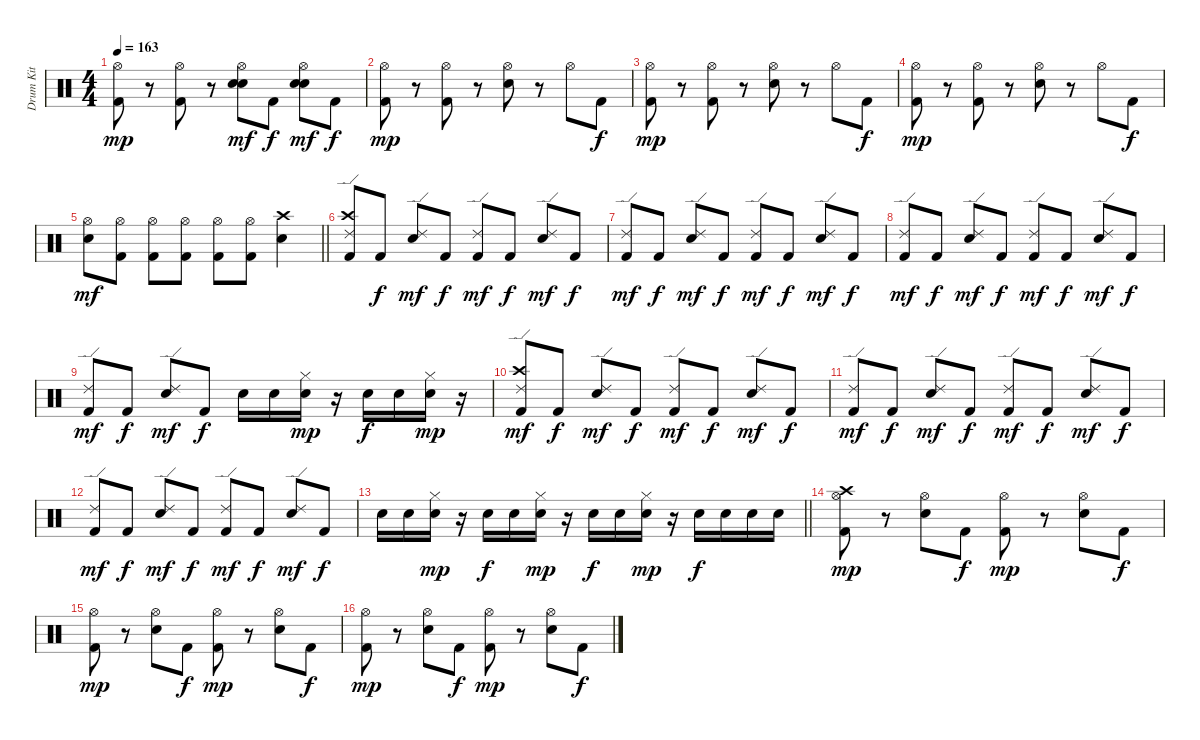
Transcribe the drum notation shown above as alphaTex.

\track ("Drum Kit" "Drum Kit") {instrument percussion}
\staff {score}
\articulation defaults
\ts (4 4)
\tempo 163
\clef neutral
\ks c
("Hi-Hat (open)" "Kick (hit) 2").8{dy mp} r.8 ("Hi-Hat (open)" "Kick (hit) 2").8 r.8 ("Hi-Hat (open)" "Snare (hit) 2" "Electric Snare (hit)").8{dy mf} "Kick (hit) 2".8{dy f} ("Hi-Hat (open)" "Snare (hit) 2" "Electric Snare (hit)").8{dy mf} "Kick (hit) 2".8{dy f} |
("Hi-Hat (open)" "Kick (hit) 2").8{dy mp} r.8 ("Hi-Hat (open)" "Kick (hit) 2").8 r.8 ("Hi-Hat (open)" "Electric Snare (hit)").8 r.8 "Hi-Hat (open)".8 "Kick (hit) 2".8{dy f} |
("Hi-Hat (open)" "Kick (hit) 2").8{dy mp} r.8 ("Hi-Hat (open)" "Kick (hit) 2").8 r.8 ("Hi-Hat (open)" "Electric Snare (hit)").8 r.8 "Hi-Hat (open)".8 "Kick (hit) 2".8{dy f} |
("Hi-Hat (open)" "Kick (hit) 2").8{dy mp} r.8 ("Hi-Hat (open)" "Kick (hit) 2").8 r.8 ("Hi-Hat (open)" "Electric Snare (hit)").8 r.8 "Hi-Hat (open)".8 "Kick (hit) 2".8{dy f} |
\barLineRight lightlight
("Hi-Hat (open)" "Electric Snare (hit)").8{dy mf} ("Hi-Hat (open)" "Kick (hit) 2").8 ("Hi-Hat (open)" "Kick (hit) 2").8 ("Hi-Hat (open)" "Kick (hit) 2").8 ("Hi-Hat (open)" "Kick (hit) 2").8 ("Hi-Hat (open)" "Kick (hit) 2").8 ("Crash high (hit)" "Electric Snare (hit)").4 |
("Crash high (hit)" "Ride (edge) 2" "Kick (hit) 2").8 "Kick (hit) 2".8{dy f} ("Ride (edge) 2" "Electric Snare (hit)").8{dy mf} "Kick (hit) 2".8{dy f} ("Ride (edge) 2" "Kick (hit) 2").8{dy mf} "Kick (hit) 2".8{dy f} ("Ride (edge) 2" "Electric Snare (hit)").8{dy mf} "Kick (hit) 2".8{dy f} |
("Ride (edge) 2" "Kick (hit) 2").8{dy mf} "Kick (hit) 2".8{dy f} ("Ride (edge) 2" "Electric Snare (hit)").8{dy mf} "Kick (hit) 2".8{dy f} ("Ride (edge) 2" "Kick (hit) 2").8{dy mf} "Kick (hit) 2".8{dy f} ("Ride (edge) 2" "Electric Snare (hit)").8{dy mf} "Kick (hit) 2".8{dy f} |
("Ride (edge) 2" "Kick (hit) 2").8{dy mf} "Kick (hit) 2".8{dy f} ("Ride (edge) 2" "Electric Snare (hit)").8{dy mf} "Kick (hit) 2".8{dy f} ("Ride (edge) 2" "Kick (hit) 2").8{dy mf} "Kick (hit) 2".8{dy f} ("Ride (edge) 2" "Electric Snare (hit)").8{dy mf} "Kick (hit) 2".8{dy f} |
("Ride (edge) 2" "Kick (hit) 2").8{dy mf} "Kick (hit) 2".8{dy f} ("Ride (edge) 2" "Electric Snare (hit)").8{dy mf} "Kick (hit) 2".8{dy f} "Electric Snare (hit)".16 "Electric Snare (hit)".16 ("Hi-Hat (closed)" "Electric Snare (hit)").16{dy mp} r.16 "Electric Snare (hit)".16{dy f} "Electric Snare (hit)".16 ("Hi-Hat (closed)" "Electric Snare (hit)").16{dy mp} r.16 |
("Crash high (hit)" "Ride (edge) 2" "Kick (hit) 2").8{dy mf} "Kick (hit) 2".8{dy f} ("Ride (edge) 2" "Electric Snare (hit)").8{dy mf} "Kick (hit) 2".8{dy f} ("Ride (edge) 2" "Kick (hit) 2").8{dy mf} "Kick (hit) 2".8{dy f} ("Ride (edge) 2" "Electric Snare (hit)").8{dy mf} "Kick (hit) 2".8{dy f} |
("Ride (edge) 2" "Kick (hit) 2").8{dy mf} "Kick (hit) 2".8{dy f} ("Ride (edge) 2" "Electric Snare (hit)").8{dy mf} "Kick (hit) 2".8{dy f} ("Ride (edge) 2" "Kick (hit) 2").8{dy mf} "Kick (hit) 2".8{dy f} ("Ride (edge) 2" "Electric Snare (hit)").8{dy mf} "Kick (hit) 2".8{dy f} |
("Ride (edge) 2" "Kick (hit) 2").8{dy mf} "Kick (hit) 2".8{dy f} ("Ride (edge) 2" "Electric Snare (hit)").8{dy mf} "Kick (hit) 2".8{dy f} ("Ride (edge) 2" "Kick (hit) 2").8{dy mf} "Kick (hit) 2".8{dy f} ("Ride (edge) 2" "Electric Snare (hit)").8{dy mf} "Kick (hit) 2".8{dy f} |
\barLineRight lightlight "Electric Snare (hit)".16 "Electric Snare (hit)".16
("Hi-Hat (closed)" "Electric Snare (hit)").16{dy mp} r.16 "Electric Snare (hit)".16{dy f} "Electric Snare (hit)".16 ("Hi-Hat (closed)" "Electric Snare (hit)").16{dy mp} r.16 "Electric Snare (hit)".16{dy f} "Electric Snare (hit)".16 ("Hi-Hat (closed)" "Electric Snare (hit)").16{dy mp} r.16 "Electric Snare (hit)".16{dy f} "Electric Snare (hit)".16 "Electric Snare (hit)".16 "Electric Snare (hit)".16 |
("Crash high (hit)" "Hi-Hat (open)" "Kick (hit) 2").8{dy mp} r.8 ("Hi-Hat (open)" "Electric Snare (hit)").8 "Kick (hit) 2".8{dy f} ("Hi-Hat (open)" "Kick (hit) 2").8{dy mp} r.8 ("Hi-Hat (open)" "Electric Snare (hit)").8 "Kick (hit) 2".8{dy f} |
("Hi-Hat (open)" "Kick (hit) 2").8{dy mp} r.8 ("Hi-Hat (open)" "Electric Snare (hit)").8 "Kick (hit) 2".8{dy f} ("Hi-Hat (open)" "Kick (hit) 2").8{dy mp} r.8 ("Hi-Hat (open)" "Electric Snare (hit)").8 "Kick (hit) 2".8{dy f} |
("Hi-Hat (open)" "Kick (hit) 2").8{dy mp} r.8 ("Hi-Hat (open)" "Electric Snare (hit)").8 "Kick (hit) 2".8{dy f} ("Hi-Hat (open)" "Kick (hit) 2").8{dy mp} r.8 ("Hi-Hat (open)" "Electric Snare (hit)").8 "Kick (hit) 2".8{dy f}
